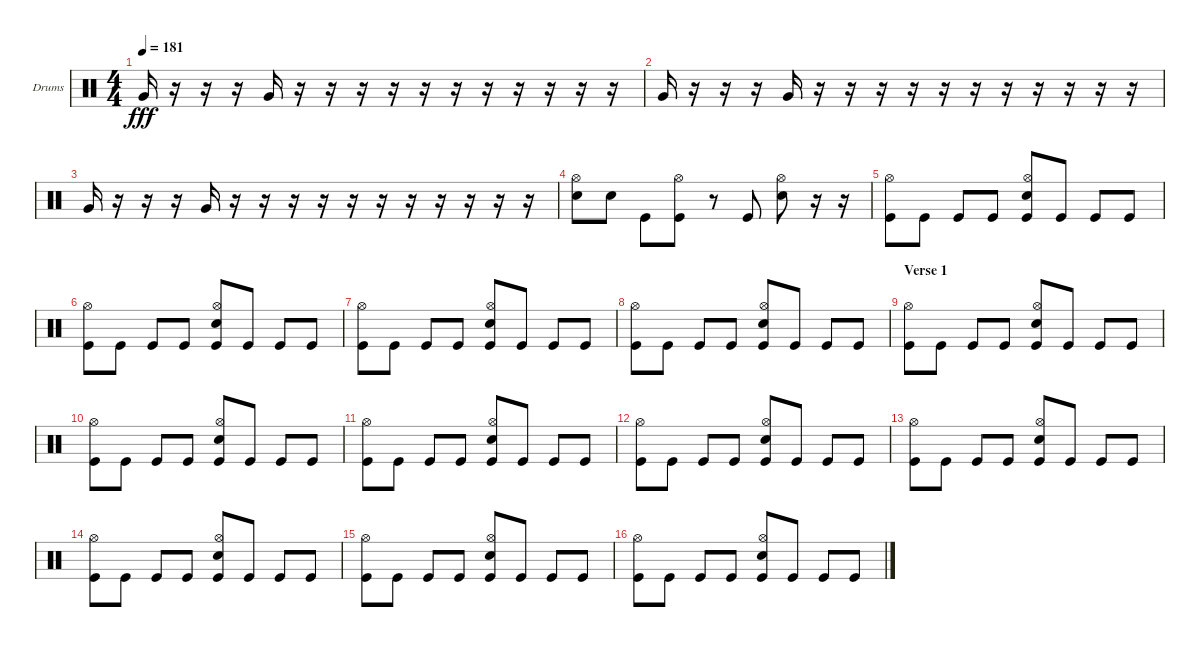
\bracketExtendMode groupsimilarinstruments
\firstSystemTrackNameOrientation horizontal
\otherSystemsTrackNameOrientation horizontal
\track ("Drumkit" "Drums") {solo instrument percussion}
\staff {score}
\articulation defaults
\ts (4 4)
\tempo 181
\clef neutral
\scale
0.333333
\ks c "Very Low Tom (hit)".16{dy fff}
r.16 r.16 r.16 "Very Low Tom (hit)".16 r.16 r.16 r.16 r.16 r.16 r.16 r.16 r.16 r.16 r.16 r.16 |
\scale
0.333333 "Very Low Tom (hit)".16 r.16 r.16 r.16 "Very Low Tom (hit)".16 r.16 r.16 r.16 r.16 r.16 r.16 r.16 r.16 r.16 r.16 r.16 |
\scale
0.333333 "Very Low Tom (hit)".16 r.16 r.16 r.16 "Very Low Tom (hit)".16 r.16 r.16 r.16 r.16 r.16 r.16 r.16 r.16 r.16 r.16 r.16 |
\scale
0.333333 ("Snare (hit) 2" "Hi-Hat (open)").8 "Snare (hit) 2".8 "Kick (hit)".8 ("Kick (hit)" "Hi-Hat (open)").8 r.8 "Kick (hit)".8 ("Snare (hit) 2" "Hi-Hat (open)").8 r.16 r.16 |
\scale
0.333333 ("Kick (hit)" "Hi-Hat (open)").8 "Kick (hit)".8 "Kick (hit)".8 "Kick (hit)".8 ("Kick (hit)" "Snare (hit) 2" "Hi-Hat (open)").8 "Kick (hit)".8 "Kick (hit)".8 "Kick (hit)".8 |
\scale
0.333333 ("Kick (hit)" "Hi-Hat (open)").8 "Kick (hit)".8 "Kick (hit)".8 "Kick (hit)".8 ("Kick (hit)" "Snare (hit) 2" "Hi-Hat (open)").8 "Kick (hit)".8 "Kick (hit)".8 "Kick (hit)".8 |
\scale
0.333333 ("Kick (hit)" "Hi-Hat (open)").8 "Kick (hit)".8 "Kick (hit)".8 "Kick (hit)".8 ("Kick (hit)" "Snare (hit) 2" "Hi-Hat (open)").8 "Kick (hit)".8 "Kick (hit)".8 "Kick (hit)".8 |
\scale
0.333333 ("Kick (hit)" "Hi-Hat (open)").8 "Kick (hit)".8 "Kick (hit)".8 "Kick (hit)".8 ("Kick (hit)" "Snare (hit) 2" "Hi-Hat (open)").8 "Kick (hit)".8 "Kick (hit)".8 "Kick (hit)".8 |
\section ("" "Verse 1")
\scale
0.333333 ("Kick (hit)" "Hi-Hat (open)").8 "Kick (hit)".8 "Kick (hit)".8 "Kick (hit)".8 ("Kick (hit)" "Snare (hit) 2" "Hi-Hat (open)").8 "Kick (hit)".8 "Kick (hit)".8 "Kick (hit)".8 |
\scale
0.333333 ("Kick (hit)" "Hi-Hat (open)").8 "Kick (hit)".8 "Kick (hit)".8 "Kick (hit)".8 ("Kick (hit)" "Snare (hit) 2" "Hi-Hat (open)").8 "Kick (hit)".8 "Kick (hit)".8 "Kick (hit)".8 |
\scale
0.333333 ("Kick (hit)" "Hi-Hat (open)").8 "Kick (hit)".8 "Kick (hit)".8 "Kick (hit)".8 ("Kick (hit)" "Snare (hit) 2" "Hi-Hat (open)").8 "Kick (hit)".8 "Kick (hit)".8 "Kick (hit)".8 |
\scale
0.333333 ("Kick (hit)" "Hi-Hat (open)").8 "Kick (hit)".8 "Kick (hit)".8 "Kick (hit)".8 ("Kick (hit)" "Snare (hit) 2" "Hi-Hat (open)").8 "Kick (hit)".8 "Kick (hit)".8 "Kick (hit)".8 |
\scale
0.333333 ("Kick (hit)" "Hi-Hat (open)").8 "Kick (hit)".8 "Kick (hit)".8 "Kick (hit)".8 ("Kick (hit)" "Snare (hit) 2" "Hi-Hat (open)").8 "Kick (hit)".8 "Kick (hit)".8 "Kick (hit)".8 |
\scale
0.333333 ("Kick (hit)" "Hi-Hat (open)").8 "Kick (hit)".8 "Kick (hit)".8 "Kick (hit)".8 ("Kick (hit)" "Snare (hit) 2" "Hi-Hat (open)").8 "Kick (hit)".8 "Kick (hit)".8 "Kick (hit)".8 |
\scale
0.333333 ("Kick (hit)" "Hi-Hat (open)").8 "Kick (hit)".8 "Kick (hit)".8 "Kick (hit)".8 ("Kick (hit)" "Snare (hit) 2" "Hi-Hat (open)").8 "Kick (hit)".8 "Kick (hit)".8 "Kick (hit)".8 |
\scale
0.333333 ("Kick (hit)" "Hi-Hat (open)").8 "Kick (hit)".8 "Kick (hit)".8 "Kick (hit)".8 ("Kick (hit)" "Snare (hit) 2" "Hi-Hat (open)").8 "Kick (hit)".8 "Kick (hit)".8 "Kick (hit)".8
